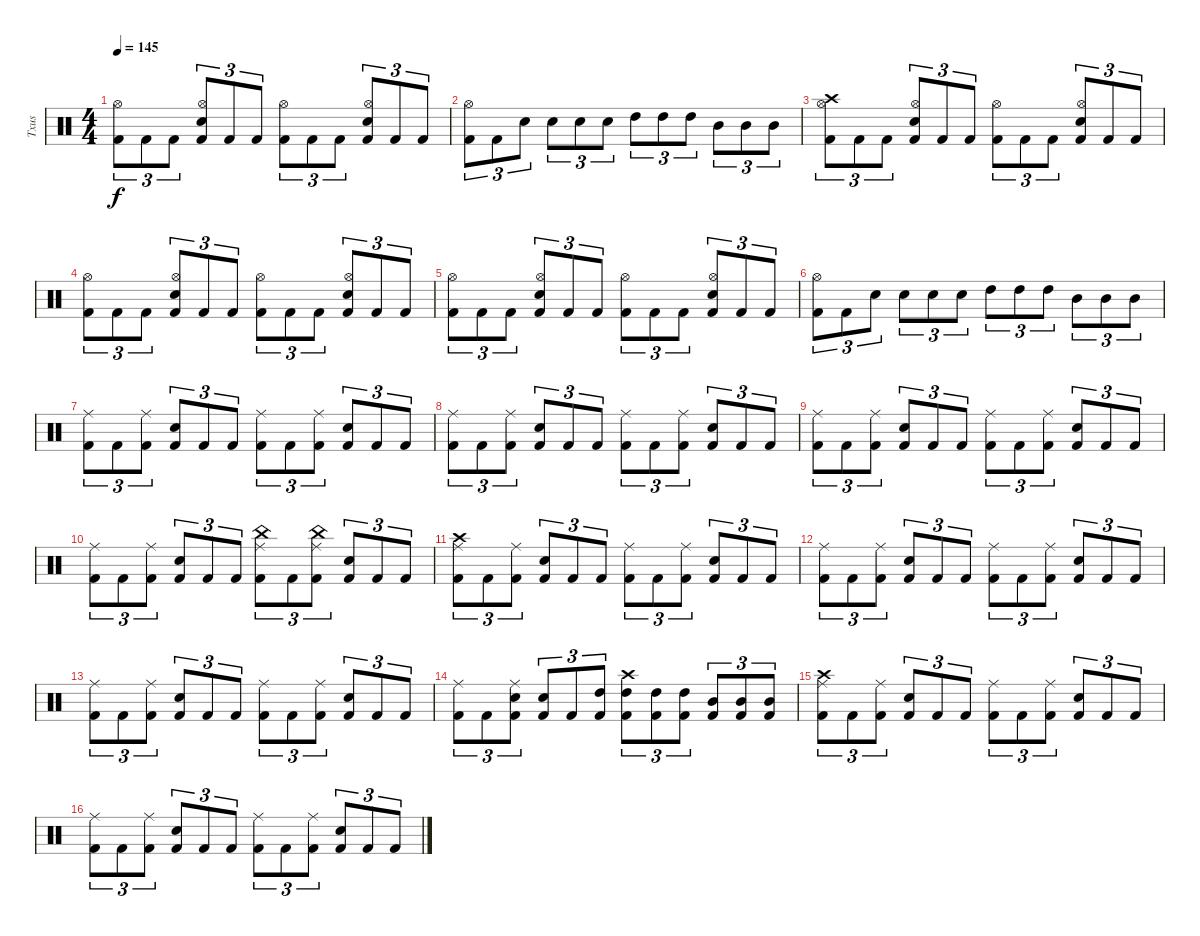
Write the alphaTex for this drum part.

\track ("Txus" "Txus") {instrument percussion}
\staff {score}
\articulation defaults
\ts (4 4)
\tempo 145
\clef neutral
\ks c
("Kick (hit) 2" "Hi-Hat (open)").8{tu (3 2) dy f} "Kick (hit) 2".8{tu (3 2)} "Kick (hit) 2".8{tu (3 2)} ("Kick (hit) 2" "Hi-Hat (open)" "Electric Snare (hit)").8{tu (3 2)} "Kick (hit) 2".8{tu (3 2)} "Kick (hit) 2".8{tu (3 2)} ("Kick (hit) 2" "Hi-Hat (open)").8{tu (3 2)} "Kick (hit) 2".8{tu (3 2)} "Kick (hit) 2".8{tu (3 2)} ("Kick (hit) 2" "Hi-Hat (open)" "Electric Snare (hit)").8{tu (3 2)} "Kick (hit) 2".8{tu (3 2)} "Kick (hit) 2".8{tu (3 2)} |
("Kick (hit) 2" "Hi-Hat (open)").8{tu (3 2)} "Kick (hit) 2".8{tu (3 2)} "Electric Snare (hit)".8{tu (3 2)} "Electric Snare (hit)".8{tu (3 2)} "Electric Snare (hit)".8{tu (3 2)} "Electric Snare (hit)".8{tu (3 2)} "High Tom (hit)".8{tu (3 2)} "High Tom (hit)".8{tu (3 2)} "High Tom (hit)".8{tu (3 2)} "Mid Tom (hit)".8{tu (3 2)} "Mid Tom (hit)".8{tu (3 2)} "Mid Tom (hit)".8{tu (3 2)} |
("Kick (hit) 2" "Hi-Hat (open)" "Crash high (hit)").8{tu (3 2)} "Kick (hit) 2".8{tu (3 2)} "Kick (hit) 2".8{tu (3 2)} ("Kick (hit) 2" "Hi-Hat (open)" "Electric Snare (hit)").8{tu (3 2)} "Kick (hit) 2".8{tu (3 2)} "Kick (hit) 2".8{tu (3 2)} ("Kick (hit) 2" "Hi-Hat (open)").8{tu (3 2)} "Kick (hit) 2".8{tu (3 2)} "Kick (hit) 2".8{tu (3 2)} ("Kick (hit) 2" "Hi-Hat (open)" "Electric Snare (hit)").8{tu (3 2)} "Kick (hit) 2".8{tu (3 2)} "Kick (hit) 2".8{tu (3 2)} |
("Kick (hit) 2" "Hi-Hat (open)").8{tu (3 2)} "Kick (hit) 2".8{tu (3 2)} "Kick (hit) 2".8{tu (3 2)} ("Kick (hit) 2" "Hi-Hat (open)" "Electric Snare (hit)").8{tu (3 2)} "Kick (hit) 2".8{tu (3 2)} "Kick (hit) 2".8{tu (3 2)} ("Kick (hit) 2" "Hi-Hat (open)").8{tu (3 2)} "Kick (hit) 2".8{tu (3 2)} "Kick (hit) 2".8{tu (3 2)} ("Kick (hit) 2" "Hi-Hat (open)" "Electric Snare (hit)").8{tu (3 2)} "Kick (hit) 2".8{tu (3 2)} "Kick (hit) 2".8{tu (3 2)} |
("Kick (hit) 2" "Hi-Hat (open)").8{tu (3 2)} "Kick (hit) 2".8{tu (3 2)} "Kick (hit) 2".8{tu (3 2)} ("Kick (hit) 2" "Hi-Hat (open)" "Electric Snare (hit)").8{tu (3 2)} "Kick (hit) 2".8{tu (3 2)} "Kick (hit) 2".8{tu (3 2)} ("Kick (hit) 2" "Hi-Hat (open)").8{tu (3 2)} "Kick (hit) 2".8{tu (3 2)} "Kick (hit) 2".8{tu (3 2)} ("Kick (hit) 2" "Hi-Hat (open)" "Electric Snare (hit)").8{tu (3 2)} "Kick (hit) 2".8{tu (3 2)} "Kick (hit) 2".8{tu (3 2)} |
("Kick (hit) 2" "Hi-Hat (open)").8{tu (3 2)} "Kick (hit) 2".8{tu (3 2)} "Electric Snare (hit)".8{tu (3 2)} "Electric Snare (hit)".8{tu (3 2)} "Electric Snare (hit)".8{tu (3 2)} "Electric Snare (hit)".8{tu (3 2)} "High Tom (hit)".8{tu (3 2)} "High Tom (hit)".8{tu (3 2)} "High Tom (hit)".8{tu (3 2)} "Mid Tom (hit)".8{tu (3 2)} "Mid Tom (hit)".8{tu (3 2)} "Mid Tom (hit)".8{tu (3 2)} |
("Kick (hit) 2" "Ride (middle)").8{tu (3 2)} "Kick (hit) 2".8{tu (3 2)} ("Kick (hit) 2" "Ride (middle)").8{tu (3 2)} ("Kick (hit) 2" "Electric Snare (hit)").8{tu (3 2)} "Kick (hit) 2".8{tu (3 2)} "Kick (hit) 2".8{tu (3 2)} ("Kick (hit) 2" "Ride (middle)").8{tu (3 2)} "Kick (hit) 2".8{tu (3 2)} ("Kick (hit) 2" "Ride (middle)").8{tu (3 2)} ("Kick (hit) 2" "Electric Snare (hit)").8{tu (3 2)} "Kick (hit) 2".8{tu (3 2)} "Kick (hit) 2".8{tu (3 2)} |
("Kick (hit) 2" "Ride (middle)").8{tu (3 2)} "Kick (hit) 2".8{tu (3 2)} ("Kick (hit) 2" "Ride (middle)").8{tu (3 2)} ("Kick (hit) 2" "Electric Snare (hit)").8{tu (3 2)} "Kick (hit) 2".8{tu (3 2)} "Kick (hit) 2".8{tu (3 2)} ("Kick (hit) 2" "Ride (middle)").8{tu (3 2)} "Kick (hit) 2".8{tu (3 2)} ("Kick (hit) 2" "Ride (middle)").8{tu (3 2)} ("Kick (hit) 2" "Electric Snare (hit)").8{tu (3 2)} "Kick (hit) 2".8{tu (3 2)} "Kick (hit) 2".8{tu (3 2)} |
("Kick (hit) 2" "Ride (middle)").8{tu (3 2)} "Kick (hit) 2".8{tu (3 2)} ("Kick (hit) 2" "Ride (middle)").8{tu (3 2)} ("Kick (hit) 2" "Electric Snare (hit)").8{tu (3 2)} "Kick (hit) 2".8{tu (3 2)} "Kick (hit) 2".8{tu (3 2)} ("Kick (hit) 2" "Ride (middle)").8{tu (3 2)} "Kick (hit) 2".8{tu (3 2)} ("Kick (hit) 2" "Ride (middle)").8{tu (3 2)} ("Kick (hit) 2" "Electric Snare (hit)").8{tu (3 2)} "Kick (hit) 2".8{tu (3 2)} "Kick (hit) 2".8{tu (3 2)} |
("Kick (hit) 2" "Ride (middle)").8{tu (3 2)} "Kick (hit) 2".8{tu (3 2)} ("Kick (hit) 2" "Ride (middle)").8{tu (3 2)} ("Kick (hit) 2" "Electric Snare (hit)").8{tu (3 2)} "Kick (hit) 2".8{tu (3 2)} "Kick (hit) 2".8{tu (3 2)} ("Kick (hit) 2" "Ride (middle)" "China (hit)").8{tu (3 2)} "Kick (hit) 2".8{tu (3 2)} ("Kick (hit) 2" "Ride (middle)" "China (hit)").8{tu (3 2)} ("Kick (hit) 2" "Electric Snare (hit)").8{tu (3 2)} "Kick (hit) 2".8{tu (3 2)} "Kick (hit) 2".8{tu (3 2)} |
("Kick (hit) 2" "Ride (middle)" "Crash high (hit)").8{tu (3 2)} "Kick (hit) 2".8{tu (3 2)} ("Kick (hit) 2" "Ride (middle)").8{tu (3 2)} ("Kick (hit) 2" "Electric Snare (hit)").8{tu (3 2)} "Kick (hit) 2".8{tu (3 2)} "Kick (hit) 2".8{tu (3 2)} ("Kick (hit) 2" "Ride (middle)").8{tu (3 2)} "Kick (hit) 2".8{tu (3 2)} ("Kick (hit) 2" "Ride (middle)").8{tu (3 2)} ("Kick (hit) 2" "Electric Snare (hit)").8{tu (3 2)} "Kick (hit) 2".8{tu (3 2)} "Kick (hit) 2".8{tu (3 2)} |
("Kick (hit) 2" "Ride (middle)").8{tu (3 2)} "Kick (hit) 2".8{tu (3 2)} ("Kick (hit) 2" "Ride (middle)").8{tu (3 2)} ("Kick (hit) 2" "Electric Snare (hit)").8{tu (3 2)} "Kick (hit) 2".8{tu (3 2)} "Kick (hit) 2".8{tu (3 2)} ("Kick (hit) 2" "Ride (middle)").8{tu (3 2)} "Kick (hit) 2".8{tu (3 2)} ("Kick (hit) 2" "Ride (middle)").8{tu (3 2)} ("Kick (hit) 2" "Electric Snare (hit)").8{tu (3 2)} "Kick (hit) 2".8{tu (3 2)} "Kick (hit) 2".8{tu (3 2)} |
("Kick (hit) 2" "Ride (middle)").8{tu (3 2)} "Kick (hit) 2".8{tu (3 2)} ("Kick (hit) 2" "Ride (middle)").8{tu (3 2)} ("Kick (hit) 2" "Electric Snare (hit)").8{tu (3 2)} "Kick (hit) 2".8{tu (3 2)} "Kick (hit) 2".8{tu (3 2)} ("Kick (hit) 2" "Ride (middle)").8{tu (3 2)} "Kick (hit) 2".8{tu (3 2)} ("Kick (hit) 2" "Ride (middle)").8{tu (3 2)} ("Kick (hit) 2" "Electric Snare (hit)").8{tu (3 2)} "Kick (hit) 2".8{tu (3 2)} "Kick (hit) 2".8{tu (3 2)} |
("Kick (hit) 2" "Ride (middle)").8{tu (3 2)} "Kick (hit) 2".8{tu (3 2)} ("Kick (hit) 2" "Ride (middle)" "Electric Snare (hit)").8{tu (3 2)} ("Kick (hit) 2" "Electric Snare (hit)").8{tu (3 2)} "Kick (hit) 2".8{tu (3 2)} ("Kick (hit) 2" "High Tom (hit)").8{tu (3 2)} ("Kick (hit) 2" "High Tom (hit)" "Crash high (hit)").8{tu (3 2)} ("Kick (hit) 2" "High Tom (hit)").8{tu (3 2)} ("Kick (hit) 2" "High Tom (hit)").8{tu (3 2)} ("Kick (hit) 2" "Mid Tom (hit)").8{tu (3 2)} ("Kick (hit) 2" "Mid Tom (hit)").8{tu (3 2)} ("Kick (hit) 2" "Mid Tom (hit)").8{tu (3 2)} |
("Kick (hit) 2" "Ride (middle)" "Crash high (hit)").8{tu (3 2)} "Kick (hit) 2".8{tu (3 2)} ("Kick (hit) 2" "Ride (middle)").8{tu (3 2)} ("Kick (hit) 2" "Electric Snare (hit)").8{tu (3 2)} "Kick (hit) 2".8{tu (3 2)} "Kick (hit) 2".8{tu (3 2)} ("Kick (hit) 2" "Ride (middle)").8{tu (3 2)} "Kick (hit) 2".8{tu (3 2)} ("Kick (hit) 2" "Ride (middle)").8{tu (3 2)} ("Kick (hit) 2" "Electric Snare (hit)").8{tu (3 2)} "Kick (hit) 2".8{tu (3 2)} "Kick (hit) 2".8{tu (3 2)} |
("Kick (hit) 2" "Ride (middle)").8{tu (3 2)} "Kick (hit) 2".8{tu (3 2)} ("Kick (hit) 2" "Ride (middle)").8{tu (3 2)} ("Kick (hit) 2" "Electric Snare (hit)").8{tu (3 2)} "Kick (hit) 2".8{tu (3 2)} "Kick (hit) 2".8{tu (3 2)} ("Kick (hit) 2" "Ride (middle)").8{tu (3 2)} "Kick (hit) 2".8{tu (3 2)} ("Kick (hit) 2" "Ride (middle)").8{tu (3 2)} ("Kick (hit) 2" "Electric Snare (hit)").8{tu (3 2)} "Kick (hit) 2".8{tu (3 2)} "Kick (hit) 2".8{tu (3 2)}
